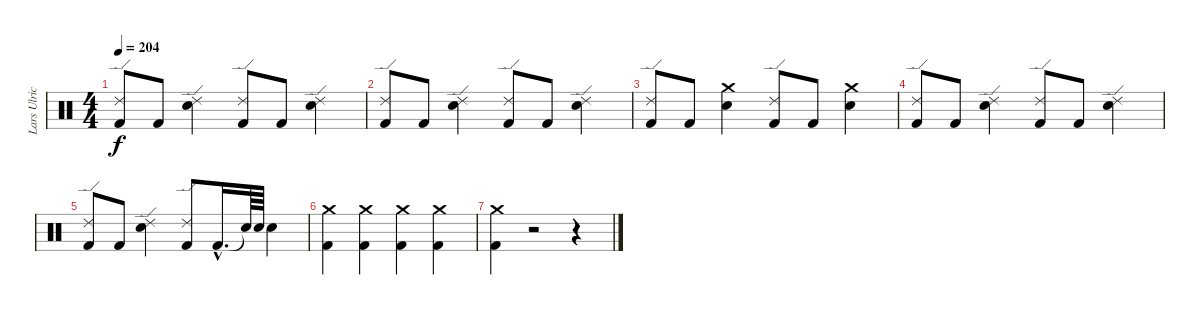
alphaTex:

\track ("Lars Ulrich (Drums)" "Lars Ulric") {instrument percussion}
\staff {score}
\articulation defaults
\ts (4 4)
\tempo 204
\clef neutral
\ks c
("Ride (edge) 2" "Kick (hit) 2").8{dy f} "Kick (hit) 2".8 ("Snare (hit) 2" "Ride (edge) 2").4 ("Ride (edge) 2" "Kick (hit) 2").8 "Kick (hit) 2".8 ("Snare (hit) 2" "Ride (edge) 2").4 |
("Ride (edge) 2" "Kick (hit) 2").8 "Kick (hit) 2".8 ("Snare (hit) 2" "Ride (edge) 2").4 ("Ride (edge) 2" "Kick (hit) 2").8 "Kick (hit) 2".8 ("Snare (hit) 2" "Ride (edge) 2").4 |
("Ride (edge) 2" "Kick (hit) 2").8 "Kick (hit) 2".8 ("Snare (hit) 2" "Crash medium (hit)").4 ("Ride (edge) 2" "Kick (hit) 2").8 "Kick (hit) 2".8 ("Snare (hit) 2" "Crash medium (hit)").4 |
("Ride (edge) 2" "Kick (hit) 2").8 "Kick (hit) 2".8 ("Snare (hit) 2" "Ride (edge) 2").4 ("Ride (edge) 2" "Kick (hit) 2").8 "Kick (hit) 2".8 ("Snare (hit) 2" "Ride (edge) 2").4 |
("Ride (edge) 2" "Kick (hit) 2").8 "Kick (hit) 2".8 ("Snare (hit) 2" "Ride (edge) 2").4 ("Ride (edge) 2" "Kick (hit) 2").8 "Kick (hit) 2"{hac}.16{d} "Snare (hit)"{t}.64 "Snare (hit) 2".64 "Snare (hit) 2".4 |
("Crash medium (hit)" "Kick (hit) 2").4 ("Crash medium (hit)" "Kick (hit) 2").4 ("Crash medium (hit)" "Kick (hit) 2").4 ("Crash medium (hit)" "Kick (hit) 2").4 |
("Crash medium (hit)" "Kick (hit) 2").4 r.2 r.4
